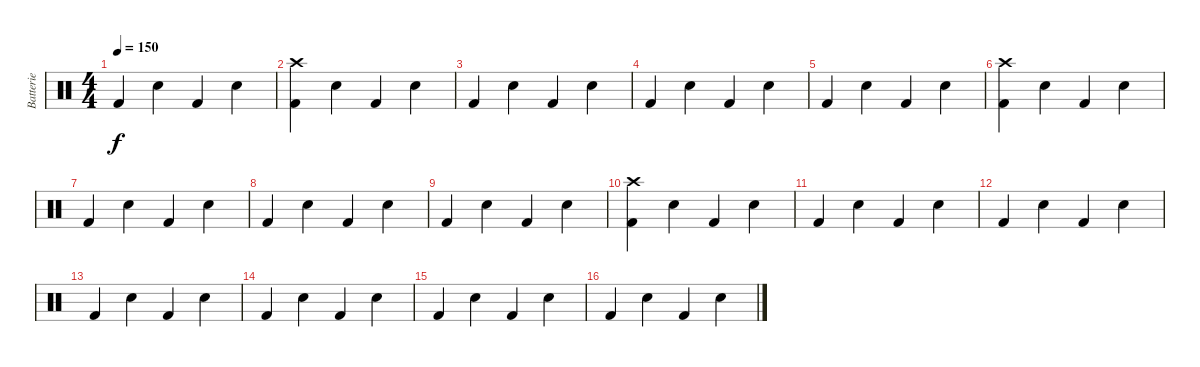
\track ("Batterie" "Batterie") {instrument percussion}
\staff {score}
\articulation defaults
\ts (4 4)
\tempo 150
\clef neutral
\ks c "Kick (hit) 2".4{dy f} "Snare (hit) 2".4 "Kick (hit) 2".4 "Snare (hit) 2".4
|
("Crash high (hit)" "Kick (hit) 2").4 "Snare (hit) 2".4 "Kick (hit) 2".4 "Snare (hit) 2".4 |
"Kick (hit) 2".4 "Snare (hit) 2".4 "Kick (hit) 2".4 "Snare (hit) 2".4 |
"Kick (hit) 2".4 "Snare (hit) 2".4 "Kick (hit) 2".4 "Snare (hit) 2".4 |
"Kick (hit) 2".4 "Snare (hit) 2".4 "Kick (hit) 2".4 "Snare (hit) 2".4 |
("Crash high (hit)" "Kick (hit) 2").4 "Snare (hit) 2".4 "Kick (hit) 2".4 "Snare (hit) 2".4 |
"Kick (hit) 2".4 "Snare (hit) 2".4 "Kick (hit) 2".4 "Snare (hit) 2".4 |
"Kick (hit) 2".4 "Snare (hit) 2".4 "Kick (hit) 2".4 "Snare (hit) 2".4 |
"Kick (hit) 2".4 "Snare (hit) 2".4 "Kick (hit) 2".4 "Snare (hit) 2".4 |
("Crash high (hit)" "Kick (hit) 2").4 "Snare (hit) 2".4 "Kick (hit) 2".4 "Snare (hit) 2".4 |
"Kick (hit) 2".4 "Snare (hit) 2".4 "Kick (hit) 2".4 "Snare (hit) 2".4 |
"Kick (hit) 2".4 "Snare (hit) 2".4 "Kick (hit) 2".4 "Snare (hit) 2".4 |
"Kick (hit) 2".4 "Snare (hit) 2".4 "Kick (hit) 2".4 "Snare (hit) 2".4 |
"Kick (hit) 2".4 "Snare (hit) 2".4 "Kick (hit) 2".4 "Snare (hit) 2".4 |
"Kick (hit) 2".4 "Snare (hit) 2".4 "Kick (hit) 2".4 "Snare (hit) 2".4 |
"Kick (hit) 2".4 "Snare (hit) 2".4 "Kick (hit) 2".4 "Snare (hit) 2".4
